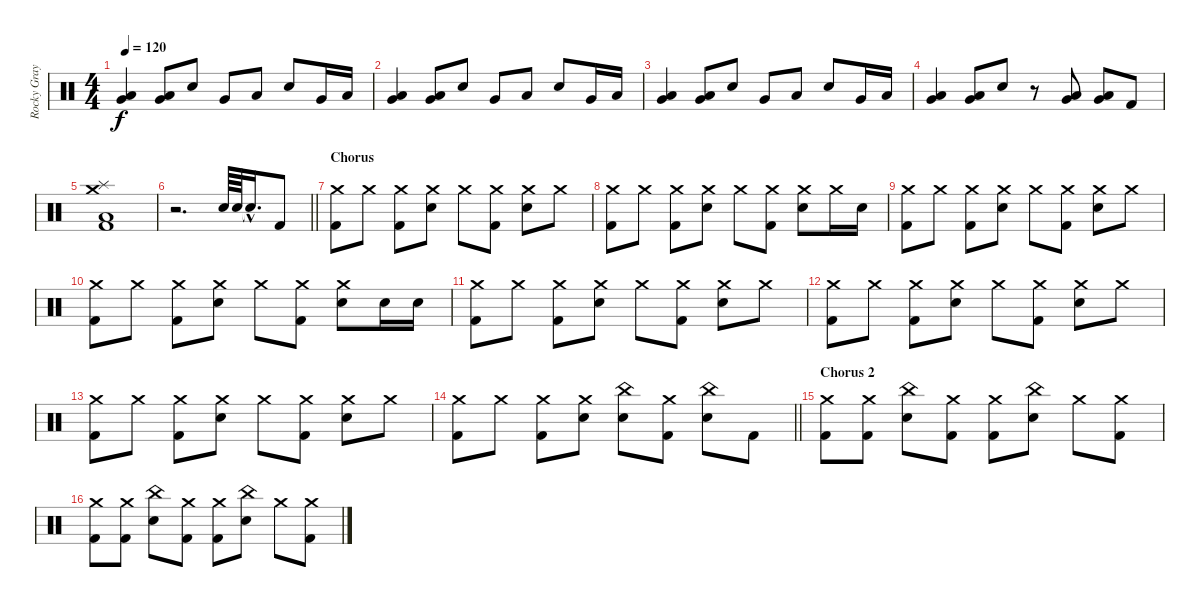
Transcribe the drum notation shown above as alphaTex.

\track ("Rocky Gray" "Rocky Gray") {instrument percussion}
\staff {score}
\articulation defaults
\ts (4 4)
\tempo 120
\clef neutral
\ks c
("Low Floor Tom (hit)" "Very Low Tom (hit)").4{dy f} ("Low Floor Tom (hit)" "Very Low Tom (hit)").8 "Electric Snare (hit)".8 "Very Low Tom (hit)".8 "Low Floor Tom (hit)".8 "Electric Snare (hit)".8 "Very Low Tom (hit)".16 "Low Floor Tom (hit)".16 |
("Low Floor Tom (hit)" "Very Low Tom (hit)").4 ("Low Floor Tom (hit)" "Very Low Tom (hit)").8 "Electric Snare (hit)".8 "Very Low Tom (hit)".8 "Low Floor Tom (hit)".8 "Electric Snare (hit)".8 "Very Low Tom (hit)".16 "Low Floor Tom (hit)".16 |
("Low Floor Tom (hit)" "Very Low Tom (hit)").4 ("Low Floor Tom (hit)" "Very Low Tom (hit)").8 "Electric Snare (hit)".8 "Very Low Tom (hit)".8 "Low Floor Tom (hit)".8 "Electric Snare (hit)".8 "Very Low Tom (hit)".16 "Low Floor Tom (hit)".16 |
("Low Floor Tom (hit)" "Very Low Tom (hit)").4 ("Low Floor Tom (hit)" "Very Low Tom (hit)").8 "Electric Snare (hit)".8 r.8 ("Very Low Tom (hit)" "Low Tom (hit)").8 ("Low Floor Tom (hit)" "Very Low Tom (hit)").8 "Kick (hit) 2".8 |
("Splash (hit)" "Low Floor Tom (hit)" "Crash medium (hit)" "Kick (hit) 2").1 |
\barLineRight lightlight
r.2{d} "Electric Snare (hit)".64 "Electric Snare (hit)".64 "Snare (hit)"{hac t}.16{d} "Kick (hit) 2".8 |
\section ("" "Chorus")
("Crash medium (hit)" "Kick (hit) 2").8 "Crash medium (hit)".8 ("Crash medium (hit)" "Kick (hit) 2").8 ("Crash medium (hit)" "Electric Snare (hit)").8 "Crash medium (hit)".8 ("Crash medium (hit)" "Kick (hit) 2").8 ("Crash medium (hit)" "Electric Snare (hit)").8 "Crash medium (hit)".8 |
("Crash medium (hit)" "Kick (hit) 2").8 "Crash medium (hit)".8 ("Crash medium (hit)" "Kick (hit) 2").8 ("Crash medium (hit)" "Electric Snare (hit)").8 "Crash medium (hit)".8 ("Crash medium (hit)" "Kick (hit) 2").8 ("Crash medium (hit)" "Electric Snare (hit)").8 "Crash medium (hit)".16 "Electric Snare (hit)".16 |
("Crash medium (hit)" "Kick (hit) 2").8 "Crash medium (hit)".8 ("Crash medium (hit)" "Kick (hit) 2").8 ("Crash medium (hit)" "Electric Snare (hit)").8 "Crash medium (hit)".8 ("Crash medium (hit)" "Kick (hit) 2").8 ("Crash medium (hit)" "Electric Snare (hit)").8 "Crash medium (hit)".8 |
("Crash medium (hit)" "Kick (hit) 2").8 "Crash medium (hit)".8 ("Crash medium (hit)" "Kick (hit) 2").8 ("Crash medium (hit)" "Electric Snare (hit)").8 "Crash medium (hit)".8 ("Crash medium (hit)" "Kick (hit) 2").8 ("Crash medium (hit)" "Electric Snare (hit)").8 "Electric Snare (hit)".16 "Electric Snare (hit)".16 |
("Crash medium (hit)" "Kick (hit) 2").8 "Crash medium (hit)".8 ("Crash medium (hit)" "Kick (hit) 2").8 ("Crash medium (hit)" "Electric Snare (hit)").8 "Crash medium (hit)".8 ("Crash medium (hit)" "Kick (hit) 2").8 ("Crash medium (hit)" "Electric Snare (hit)").8 "Crash medium (hit)".8 |
("Crash medium (hit)" "Kick (hit) 2").8 "Crash medium (hit)".8 ("Crash medium (hit)" "Kick (hit) 2").8 ("Crash medium (hit)" "Electric Snare (hit)").8 "Crash medium (hit)".8 ("Crash medium (hit)" "Kick (hit) 2").8 ("Crash medium (hit)" "Electric Snare (hit)").8 "Crash medium (hit)".8 |
("Crash medium (hit)" "Kick (hit) 2").8 "Crash medium (hit)".8 ("Crash medium (hit)" "Kick (hit) 2").8 ("Crash medium (hit)" "Electric Snare (hit)").8 "Crash medium (hit)".8 ("Crash medium (hit)" "Kick (hit) 2").8 ("Crash medium (hit)" "Electric Snare (hit)").8 "Crash medium (hit)".8 |
\barLineRight lightlight
("Crash medium (hit)" "Kick (hit) 2").8 "Crash medium (hit)".8 ("Crash medium (hit)" "Kick (hit) 2").8 ("Crash medium (hit)" "Electric Snare (hit)").8 ("China (hit)" "Electric Snare (hit)").8 ("Crash medium (hit)" "Kick (hit) 2").8 ("China (hit)" "Electric Snare (hit)").8 "Kick (hit) 2".8 |
\section ("" "Chorus 2")
("Crash medium (hit)" "Kick (hit) 2").8 ("Crash medium (hit)" "Kick (hit) 2").8 ("China (hit)" "Electric Snare (hit)").8 ("Crash medium (hit)" "Kick (hit) 2").8 ("Crash medium (hit)" "Kick (hit) 2").8 ("China (hit)" "Electric Snare (hit)").8 "Crash medium (hit)".8 ("Crash medium (hit)" "Kick (hit) 2").8 |
("Crash medium (hit)" "Kick (hit) 2").8 ("Crash medium (hit)" "Kick (hit) 2").8 ("China (hit)" "Electric Snare (hit)").8 ("Crash medium (hit)" "Kick (hit) 2").8 ("Crash medium (hit)" "Kick (hit) 2").8 ("China (hit)" "Electric Snare (hit)").8 "Crash medium (hit)".8 ("Crash medium (hit)" "Kick (hit) 2").8
